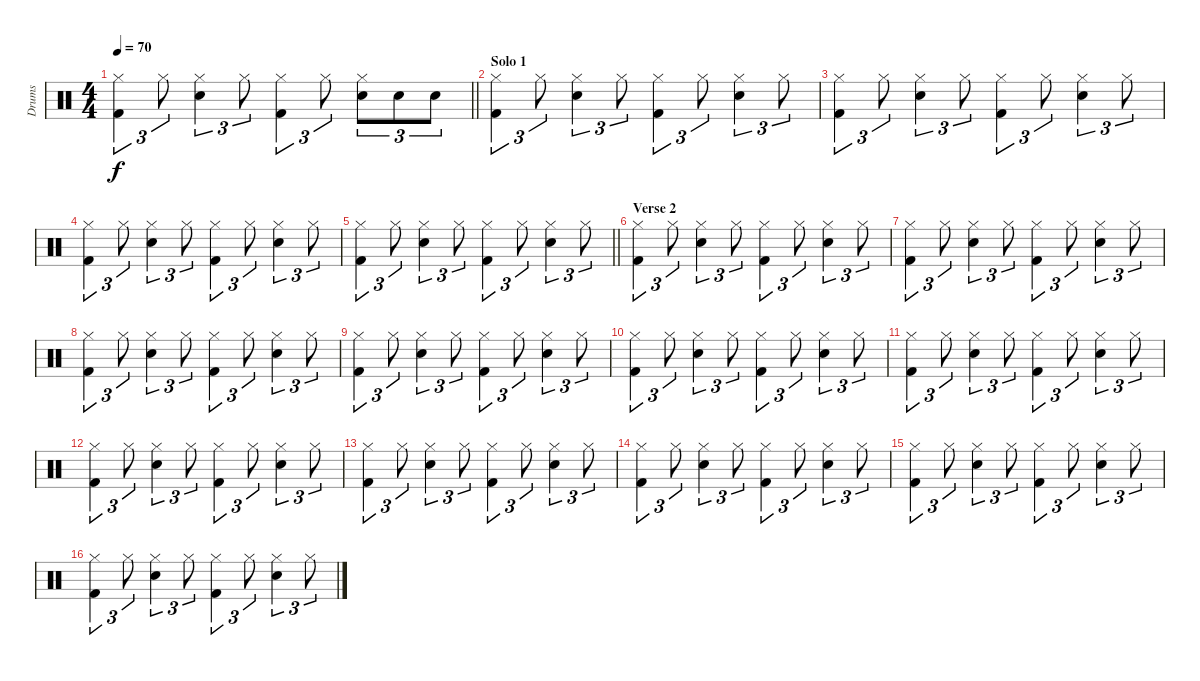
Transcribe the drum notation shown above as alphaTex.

\track ("Drums" "Drums") {instrument percussion}
\staff {score}
\articulation defaults
\ts (4 4)
\tempo 70
\clef neutral
\barLineRight lightlight
\ks c
("Hi-Hat (closed)" "Kick (hit) 2").4{tu (3 2) dy f} "Hi-Hat (closed)".8{tu (3 2)} ("Hi-Hat (closed)" "Snare (hit) 2").4{tu (3 2)} "Hi-Hat (closed)".8{tu (3 2)} ("Hi-Hat (closed)" "Kick (hit) 2").4{tu (3 2)} "Hi-Hat (closed)".8{tu (3 2)} ("Hi-Hat (closed)" "Snare (hit) 2").8{tu (3 2)} "Snare (hit) 2".8{tu (3 2)} "Snare (hit) 2".8{tu (3 2)} |
\section ("" "Solo 1")
("Hi-Hat (closed)" "Kick (hit) 2").4{tu (3 2)} "Hi-Hat (closed)".8{tu (3 2)} ("Hi-Hat (closed)" "Snare (hit) 2").4{tu (3 2)} "Hi-Hat (closed)".8{tu (3 2)} ("Hi-Hat (closed)" "Kick (hit) 2").4{tu (3 2)} "Hi-Hat (closed)".8{tu (3 2)} ("Hi-Hat (closed)" "Snare (hit) 2").4{tu (3 2)} "Hi-Hat (closed)".8{tu (3 2)} |
("Hi-Hat (closed)" "Kick (hit) 2").4{tu (3 2)} "Hi-Hat (closed)".8{tu (3 2)} ("Hi-Hat (closed)" "Snare (hit) 2").4{tu (3 2)} "Hi-Hat (closed)".8{tu (3 2)} ("Hi-Hat (closed)" "Kick (hit) 2").4{tu (3 2)} "Hi-Hat (closed)".8{tu (3 2)} ("Hi-Hat (closed)" "Snare (hit) 2").4{tu (3 2)} "Hi-Hat (closed)".8{tu (3 2)} |
("Hi-Hat (closed)" "Kick (hit) 2").4{tu (3 2)} "Hi-Hat (closed)".8{tu (3 2)} ("Hi-Hat (closed)" "Snare (hit) 2").4{tu (3 2)} "Hi-Hat (closed)".8{tu (3 2)} ("Hi-Hat (closed)" "Kick (hit) 2").4{tu (3 2)} "Hi-Hat (closed)".8{tu (3 2)} ("Hi-Hat (closed)" "Snare (hit) 2").4{tu (3 2)} "Hi-Hat (closed)".8{tu (3 2)} |
\barLineRight lightlight
("Hi-Hat (closed)" "Kick (hit) 2").4{tu (3 2)} "Hi-Hat (closed)".8{tu (3 2)} ("Hi-Hat (closed)" "Snare (hit) 2").4{tu (3 2)} "Hi-Hat (closed)".8{tu (3 2)} ("Hi-Hat (closed)" "Kick (hit) 2").4{tu (3 2)} "Hi-Hat (closed)".8{tu (3 2)} ("Hi-Hat (closed)" "Snare (hit) 2").4{tu (3 2)} "Hi-Hat (closed)".8{tu (3 2)} |
\section ("" "Verse 2")
("Hi-Hat (closed)" "Kick (hit) 2").4{tu (3 2)} "Hi-Hat (closed)".8{tu (3 2)} ("Hi-Hat (closed)" "Snare (hit) 2").4{tu (3 2)} "Hi-Hat (closed)".8{tu (3 2)} ("Hi-Hat (closed)" "Kick (hit) 2").4{tu (3 2)} "Hi-Hat (closed)".8{tu (3 2)} ("Hi-Hat (closed)" "Snare (hit) 2").4{tu (3 2)} "Hi-Hat (closed)".8{tu (3 2)} |
("Hi-Hat (closed)" "Kick (hit) 2").4{tu (3 2)} "Hi-Hat (closed)".8{tu (3 2)} ("Hi-Hat (closed)" "Snare (hit) 2").4{tu (3 2)} "Hi-Hat (closed)".8{tu (3 2)} ("Hi-Hat (closed)" "Kick (hit) 2").4{tu (3 2)} "Hi-Hat (closed)".8{tu (3 2)} ("Hi-Hat (closed)" "Snare (hit) 2").4{tu (3 2)} "Hi-Hat (closed)".8{tu (3 2)} |
("Hi-Hat (closed)" "Kick (hit) 2").4{tu (3 2)} "Hi-Hat (closed)".8{tu (3 2)} ("Hi-Hat (closed)" "Snare (hit) 2").4{tu (3 2)} "Hi-Hat (closed)".8{tu (3 2)} ("Hi-Hat (closed)" "Kick (hit) 2").4{tu (3 2)} "Hi-Hat (closed)".8{tu (3 2)} ("Hi-Hat (closed)" "Snare (hit) 2").4{tu (3 2)} "Hi-Hat (closed)".8{tu (3 2)} |
("Hi-Hat (closed)" "Kick (hit) 2").4{tu (3 2)} "Hi-Hat (closed)".8{tu (3 2)} ("Hi-Hat (closed)" "Snare (hit) 2").4{tu (3 2)} "Hi-Hat (closed)".8{tu (3 2)} ("Hi-Hat (closed)" "Kick (hit) 2").4{tu (3 2)} "Hi-Hat (closed)".8{tu (3 2)} ("Hi-Hat (closed)" "Snare (hit) 2").4{tu (3 2)} "Hi-Hat (closed)".8{tu (3 2)} |
("Hi-Hat (closed)" "Kick (hit) 2").4{tu (3 2)} "Hi-Hat (closed)".8{tu (3 2)} ("Hi-Hat (closed)" "Snare (hit) 2").4{tu (3 2)} "Hi-Hat (closed)".8{tu (3 2)} ("Hi-Hat (closed)" "Kick (hit) 2").4{tu (3 2)} "Hi-Hat (closed)".8{tu (3 2)} ("Hi-Hat (closed)" "Snare (hit) 2").4{tu (3 2)} "Hi-Hat (closed)".8{tu (3 2)} |
("Hi-Hat (closed)" "Kick (hit) 2").4{tu (3 2)} "Hi-Hat (closed)".8{tu (3 2)} ("Hi-Hat (closed)" "Snare (hit) 2").4{tu (3 2)} "Hi-Hat (closed)".8{tu (3 2)} ("Hi-Hat (closed)" "Kick (hit) 2").4{tu (3 2)} "Hi-Hat (closed)".8{tu (3 2)} ("Hi-Hat (closed)" "Snare (hit) 2").4{tu (3 2)} "Hi-Hat (closed)".8{tu (3 2)} |
("Hi-Hat (closed)" "Kick (hit) 2").4{tu (3 2)} "Hi-Hat (closed)".8{tu (3 2)} ("Hi-Hat (closed)" "Snare (hit) 2").4{tu (3 2)} "Hi-Hat (closed)".8{tu (3 2)} ("Hi-Hat (closed)" "Kick (hit) 2").4{tu (3 2)} "Hi-Hat (closed)".8{tu (3 2)} ("Hi-Hat (closed)" "Snare (hit) 2").4{tu (3 2)} "Hi-Hat (closed)".8{tu (3 2)} |
("Hi-Hat (closed)" "Kick (hit) 2").4{tu (3 2)} "Hi-Hat (closed)".8{tu (3 2)} ("Hi-Hat (closed)" "Snare (hit) 2").4{tu (3 2)} "Hi-Hat (closed)".8{tu (3 2)} ("Hi-Hat (closed)" "Kick (hit) 2").4{tu (3 2)} "Hi-Hat (closed)".8{tu (3 2)} ("Hi-Hat (closed)" "Snare (hit) 2").4{tu (3 2)} "Hi-Hat (closed)".8{tu (3 2)} |
("Hi-Hat (closed)" "Kick (hit) 2").4{tu (3 2)} "Hi-Hat (closed)".8{tu (3 2)} ("Hi-Hat (closed)" "Snare (hit) 2").4{tu (3 2)} "Hi-Hat (closed)".8{tu (3 2)} ("Hi-Hat (closed)" "Kick (hit) 2").4{tu (3 2)} "Hi-Hat (closed)".8{tu (3 2)} ("Hi-Hat (closed)" "Snare (hit) 2").4{tu (3 2)} "Hi-Hat (closed)".8{tu (3 2)} |
("Hi-Hat (closed)" "Kick (hit) 2").4{tu (3 2)} "Hi-Hat (closed)".8{tu (3 2)} ("Hi-Hat (closed)" "Snare (hit) 2").4{tu (3 2)} "Hi-Hat (closed)".8{tu (3 2)} ("Hi-Hat (closed)" "Kick (hit) 2").4{tu (3 2)} "Hi-Hat (closed)".8{tu (3 2)} ("Hi-Hat (closed)" "Snare (hit) 2").4{tu (3 2)} "Hi-Hat (closed)".8{tu (3 2)} |
("Hi-Hat (closed)" "Kick (hit) 2").4{tu (3 2)} "Hi-Hat (closed)".8{tu (3 2)} ("Hi-Hat (closed)" "Snare (hit) 2").4{tu (3 2)} "Hi-Hat (closed)".8{tu (3 2)} ("Hi-Hat (closed)" "Kick (hit) 2").4{tu (3 2)} "Hi-Hat (closed)".8{tu (3 2)} ("Hi-Hat (closed)" "Snare (hit) 2").4{tu (3 2)} "Hi-Hat (closed)".8{tu (3 2)}
